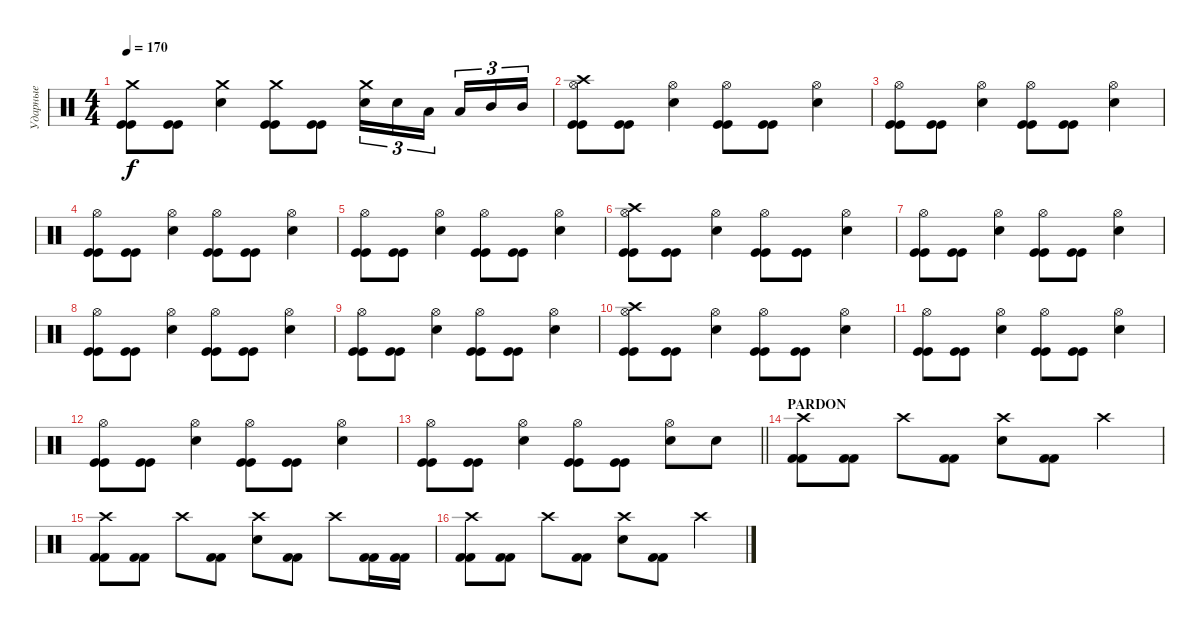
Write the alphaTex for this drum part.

\track ("Ударные" "Ударные") {instrument percussion}
\staff {score}
\articulation defaults
\ts (4 4)
\tempo 170
\clef neutral
\ks c
("Crash medium (hit)" "Kick (hit)" "Kick (hit)").8{dy f} ("Kick (hit)" "Kick (hit)").8 ("Crash medium (hit)" "Electric Snare (hit)").4 ("Crash medium (hit)" "Kick (hit)" "Kick (hit)").8 ("Kick (hit)" "Kick (hit)").8 ("Crash medium (hit)" "Electric Snare (hit)").16{tu (3 2)} "Electric Snare (hit)".16{tu (3 2)} "Low Tom (hit)".16{tu (3 2) beam splitsecondary} "Low Tom (hit)".16{tu (3 2)} "Mid Tom (hit)".16{tu (3 2)} "Mid Tom (hit)".16{tu (3 2)} |
("Crash high (hit)" "Hi-Hat (open)" "Kick (hit)" "Kick (hit)").8 ("Kick (hit)" "Kick (hit)").8 ("Hi-Hat (open)" "Electric Snare (hit)").4 ("Hi-Hat (open)" "Kick (hit)" "Kick (hit)").8 ("Kick (hit)" "Kick (hit)").8 ("Hi-Hat (open)" "Electric Snare (hit)").4 |
("Hi-Hat (open)" "Kick (hit)" "Kick (hit)").8 ("Kick (hit)" "Kick (hit)").8 ("Hi-Hat (open)" "Electric Snare (hit)").4 ("Hi-Hat (open)" "Kick (hit)" "Kick (hit)").8 ("Kick (hit)" "Kick (hit)").8 ("Hi-Hat (open)" "Electric Snare (hit)").4 |
("Hi-Hat (open)" "Kick (hit)" "Kick (hit)").8 ("Kick (hit)" "Kick (hit)").8 ("Hi-Hat (open)" "Electric Snare (hit)").4 ("Hi-Hat (open)" "Kick (hit)" "Kick (hit)").8 ("Kick (hit)" "Kick (hit)").8 ("Hi-Hat (open)" "Electric Snare (hit)").4 |
("Hi-Hat (open)" "Kick (hit)" "Kick (hit)").8 ("Kick (hit)" "Kick (hit)").8 ("Hi-Hat (open)" "Electric Snare (hit)").4 ("Hi-Hat (open)" "Kick (hit)" "Kick (hit)").8 ("Kick (hit)" "Kick (hit)").8 ("Hi-Hat (open)" "Electric Snare (hit)").4 |
("Crash high (hit)" "Hi-Hat (open)" "Kick (hit)" "Kick (hit)").8 ("Kick (hit)" "Kick (hit)").8 ("Hi-Hat (open)" "Electric Snare (hit)").4 ("Hi-Hat (open)" "Kick (hit)" "Kick (hit)").8 ("Kick (hit)" "Kick (hit)").8 ("Hi-Hat (open)" "Electric Snare (hit)").4 |
("Hi-Hat (open)" "Kick (hit)" "Kick (hit)").8 ("Kick (hit)" "Kick (hit)").8 ("Hi-Hat (open)" "Electric Snare (hit)").4 ("Hi-Hat (open)" "Kick (hit)" "Kick (hit)").8 ("Kick (hit)" "Kick (hit)").8 ("Hi-Hat (open)" "Electric Snare (hit)").4 |
("Hi-Hat (open)" "Kick (hit)" "Kick (hit)").8 ("Kick (hit)" "Kick (hit)").8 ("Hi-Hat (open)" "Electric Snare (hit)").4 ("Hi-Hat (open)" "Kick (hit)" "Kick (hit)").8 ("Kick (hit)" "Kick (hit)").8 ("Hi-Hat (open)" "Electric Snare (hit)").4 |
("Hi-Hat (open)" "Kick (hit)" "Kick (hit)").8 ("Kick (hit)" "Kick (hit)").8 ("Hi-Hat (open)" "Electric Snare (hit)").4 ("Hi-Hat (open)" "Kick (hit)" "Kick (hit)").8 ("Kick (hit)" "Kick (hit)").8 ("Hi-Hat (open)" "Electric Snare (hit)").4 |
("Crash high (hit)" "Hi-Hat (open)" "Kick (hit)" "Kick (hit)").8 ("Kick (hit)" "Kick (hit)").8 ("Hi-Hat (open)" "Electric Snare (hit)").4 ("Hi-Hat (open)" "Kick (hit)" "Kick (hit)").8 ("Kick (hit)" "Kick (hit)").8 ("Hi-Hat (open)" "Electric Snare (hit)").4 |
("Hi-Hat (open)" "Kick (hit)" "Kick (hit)").8 ("Kick (hit)" "Kick (hit)").8 ("Hi-Hat (open)" "Electric Snare (hit)").4 ("Hi-Hat (open)" "Kick (hit)" "Kick (hit)").8 ("Kick (hit)" "Kick (hit)").8 ("Hi-Hat (open)" "Electric Snare (hit)").4 |
("Hi-Hat (open)" "Kick (hit)" "Kick (hit)").8 ("Kick (hit)" "Kick (hit)").8 ("Hi-Hat (open)" "Electric Snare (hit)").4 ("Hi-Hat (open)" "Kick (hit)" "Kick (hit)").8 ("Kick (hit)" "Kick (hit)").8 ("Hi-Hat (open)" "Electric Snare (hit)").4 |
\barLineRight lightlight
("Hi-Hat (open)" "Kick (hit)" "Kick (hit)").8 ("Kick (hit)" "Kick (hit)").8 ("Hi-Hat (open)" "Electric Snare (hit)").4 ("Hi-Hat (open)" "Kick (hit)" "Kick (hit)").8 ("Kick (hit)" "Kick (hit)").8 ("Hi-Hat (open)" "Electric Snare (hit)").8 "Electric Snare (hit)".8 |
\section ("" "PARDON")
("Crash high (hit)" "Kick (hit) 2" "Kick (hit) 2").8 ("Kick (hit) 2" "Kick (hit) 2").8 "Crash high (hit)".8 ("Kick (hit) 2" "Kick (hit) 2").8 ("Crash high (hit)" "Electric Snare (hit)").8 ("Kick (hit) 2" "Kick (hit) 2").8 "Crash high (hit)".4 |
("Crash high (hit)" "Kick (hit) 2" "Kick (hit) 2").8 ("Kick (hit) 2" "Kick (hit) 2").8 "Crash high (hit)".8 ("Kick (hit) 2" "Kick (hit) 2").8 ("Crash high (hit)" "Electric Snare (hit)").8 ("Kick (hit) 2" "Kick (hit) 2").8 "Crash high (hit)".8 ("Kick (hit) 2" "Kick (hit) 2").16 ("Kick (hit) 2" "Kick (hit) 2").16 |
("Crash high (hit)" "Kick (hit) 2" "Kick (hit) 2").8 ("Kick (hit) 2" "Kick (hit) 2").8 "Crash high (hit)".8 ("Kick (hit) 2" "Kick (hit) 2").8 ("Crash high (hit)" "Electric Snare (hit)").8 ("Kick (hit) 2" "Kick (hit) 2").8 "Crash high (hit)".4
